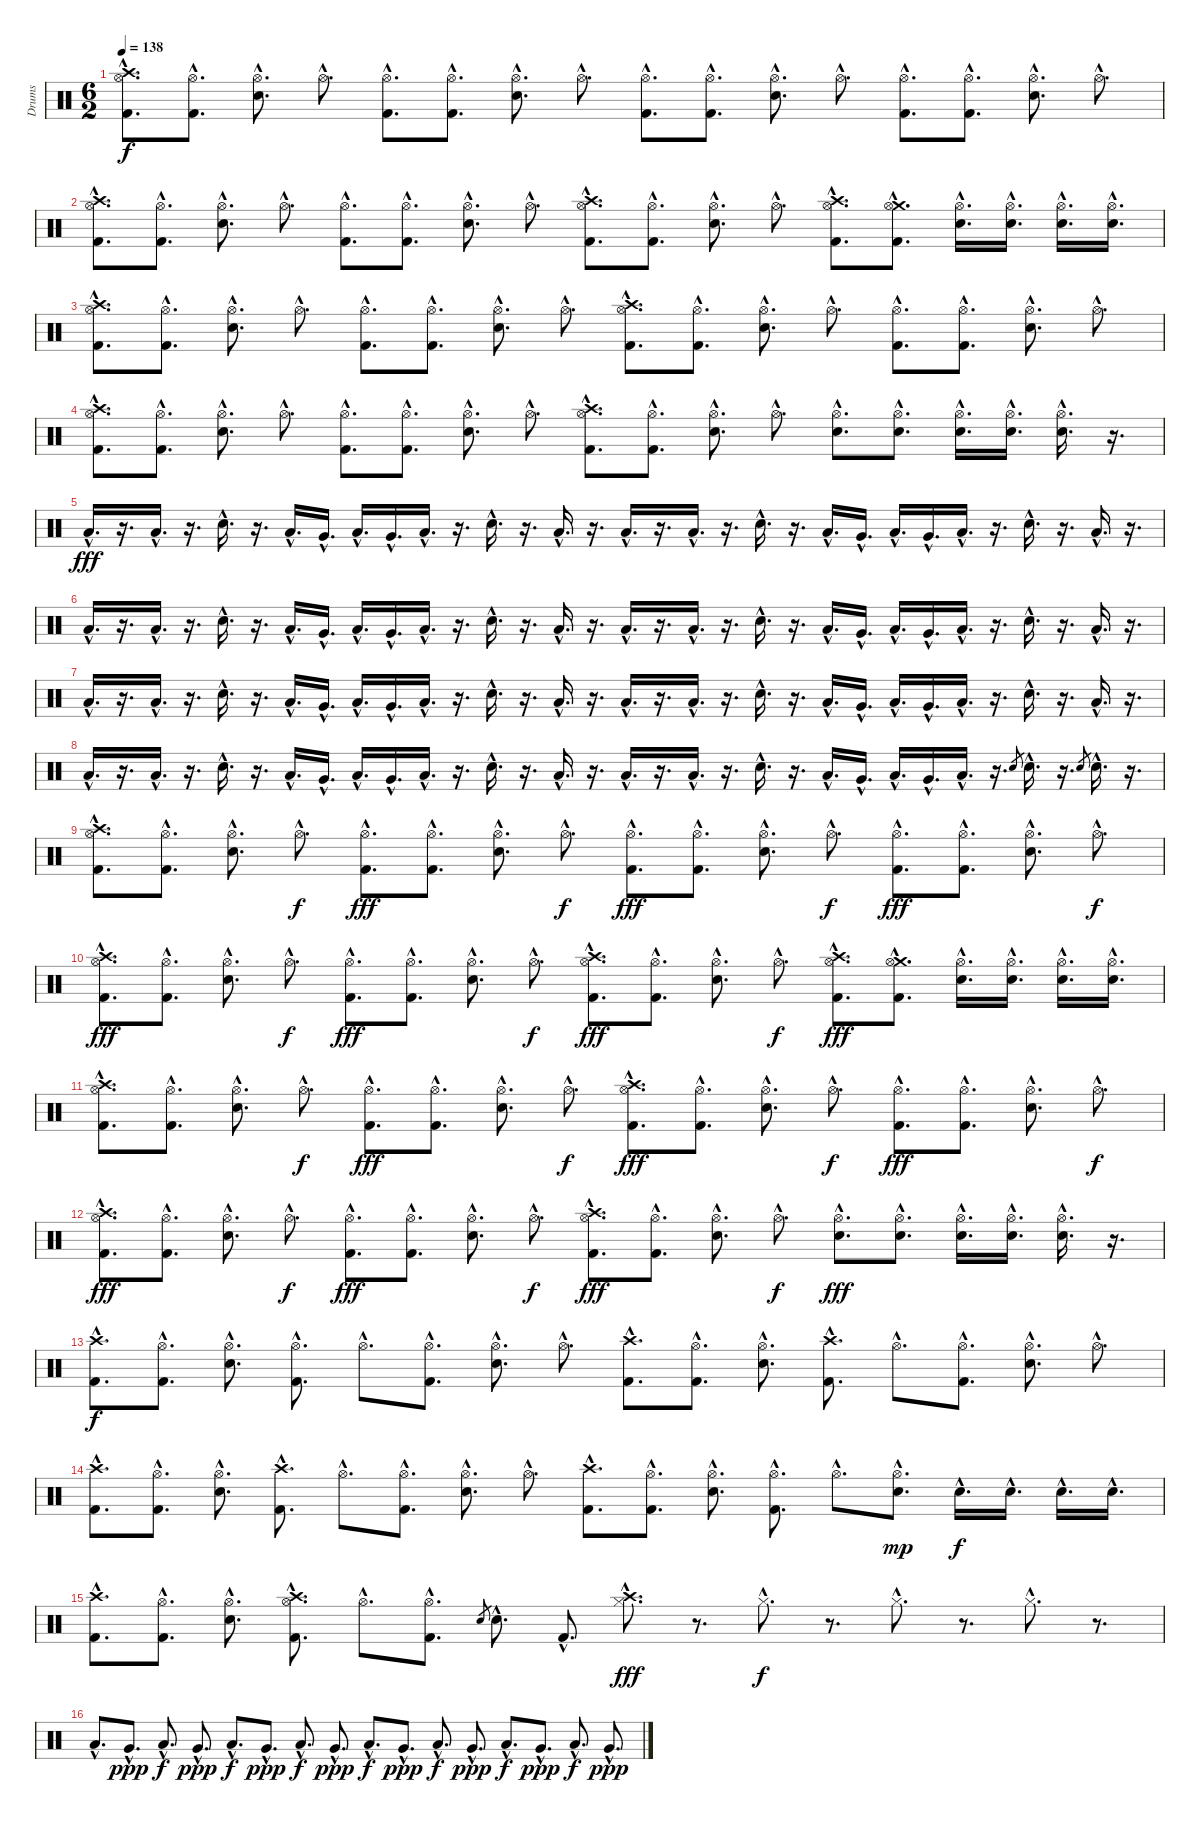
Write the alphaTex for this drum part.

\track ("Drums" "Drums") {instrument percussion}
\staff {score}
\articulation defaults
\ts (6 2)
\tempo 138
\clef neutral
\ks c
("Crash high (hit)"{hac} "Kick (hit) 2"{hac} "Hi-Hat (open)"{hac}).8{d dy f} ("Kick (hit) 2"{hac} "Hi-Hat (open)"{hac}).8{d} ("Electric Snare (hit)"{hac} "Hi-Hat (open)"{hac}).8{d} "Hi-Hat (open)"{hac}.8{d} ("Kick (hit) 2"{hac} "Hi-Hat (open)"{hac}).8{d} ("Kick (hit) 2"{hac} "Hi-Hat (open)"{hac}).8{d} ("Electric Snare (hit)"{hac} "Hi-Hat (open)"{hac}).8{d} "Hi-Hat (open)"{hac}.8{d} ("Kick (hit) 2"{hac} "Hi-Hat (open)"{hac}).8{d} ("Kick (hit) 2"{hac} "Hi-Hat (open)"{hac}).8{d} ("Electric Snare (hit)"{hac} "Hi-Hat (open)"{hac}).8{d} "Hi-Hat (open)"{hac}.8{d} ("Kick (hit) 2"{hac} "Hi-Hat (open)"{hac}).8{d} ("Kick (hit) 2"{hac} "Hi-Hat (open)"{hac}).8{d} ("Electric Snare (hit)"{hac} "Hi-Hat (open)"{hac}).8{d} "Hi-Hat (open)"{hac}.8{d} |
("Crash high (hit)"{hac} "Kick (hit) 2"{hac} "Hi-Hat (open)"{hac}).8{d} ("Kick (hit) 2"{hac} "Hi-Hat (open)"{hac}).8{d} ("Electric Snare (hit)"{hac} "Hi-Hat (open)"{hac}).8{d} "Hi-Hat (open)"{hac}.8{d} ("Kick (hit) 2"{hac} "Hi-Hat (open)"{hac}).8{d} ("Kick (hit) 2"{hac} "Hi-Hat (open)"{hac}).8{d} ("Electric Snare (hit)"{hac} "Hi-Hat (open)"{hac}).8{d} "Hi-Hat (open)"{hac}.8{d} ("Crash high (hit)"{hac} "Kick (hit) 2"{hac} "Hi-Hat (open)"{hac}).8{d} ("Kick (hit) 2"{hac} "Hi-Hat (open)"{hac}).8{d} ("Electric Snare (hit)"{hac} "Hi-Hat (open)"{hac}).8{d} "Hi-Hat (open)"{hac}.8{d} ("Crash high (hit)"{hac} "Kick (hit) 2"{hac} "Hi-Hat (open)"{hac}).8{d} ("Crash medium (hit)"{hac} "Kick (hit) 2"{hac} "Hi-Hat (open)"{hac}).8{d} ("Electric Snare (hit)"{hac} "Hi-Hat (open)"{hac}).16{d} ("Electric Snare (hit)"{hac} "Hi-Hat (open)"{hac}).16{d} ("Electric Snare (hit)"{hac} "Hi-Hat (open)"{hac}).16{d} ("Electric Snare (hit)"{hac} "Hi-Hat (open)"{hac}).16{d} |
("Crash high (hit)"{hac} "Kick (hit) 2"{hac} "Hi-Hat (open)"{hac}).8{d} ("Kick (hit) 2"{hac} "Hi-Hat (open)"{hac}).8{d} ("Electric Snare (hit)"{hac} "Hi-Hat (open)"{hac}).8{d} "Hi-Hat (open)"{hac}.8{d} ("Kick (hit) 2"{hac} "Hi-Hat (open)"{hac}).8{d} ("Kick (hit) 2"{hac} "Hi-Hat (open)"{hac}).8{d} ("Electric Snare (hit)"{hac} "Hi-Hat (open)"{hac}).8{d} "Hi-Hat (open)"{hac}.8{d} ("Crash high (hit)"{hac} "Kick (hit) 2"{hac} "Hi-Hat (open)"{hac}).8{d} ("Kick (hit) 2"{hac} "Hi-Hat (open)"{hac}).8{d} ("Electric Snare (hit)"{hac} "Hi-Hat (open)"{hac}).8{d} "Hi-Hat (open)"{hac}.8{d} ("Kick (hit) 2"{hac} "Hi-Hat (open)"{hac}).8{d} ("Kick (hit) 2"{hac} "Hi-Hat (open)"{hac}).8{d} ("Electric Snare (hit)"{hac} "Hi-Hat (open)"{hac}).8{d} "Hi-Hat (open)"{hac}.8{d} |
("Crash high (hit)"{hac} "Kick (hit) 2"{hac} "Hi-Hat (open)"{hac}).8{d} ("Kick (hit) 2"{hac} "Hi-Hat (open)"{hac}).8{d} ("Electric Snare (hit)"{hac} "Hi-Hat (open)"{hac}).8{d} "Hi-Hat (open)"{hac}.8{d} ("Kick (hit) 2"{hac} "Hi-Hat (open)"{hac}).8{d} ("Kick (hit) 2"{hac} "Hi-Hat (open)"{hac}).8{d} ("Electric Snare (hit)"{hac} "Hi-Hat (open)"{hac}).8{d} "Hi-Hat (open)"{hac}.8{d} ("Crash high (hit)"{hac} "Kick (hit) 2"{hac} "Hi-Hat (open)"{hac}).8{d} ("Kick (hit) 2"{hac} "Hi-Hat (open)"{hac}).8{d} ("Electric Snare (hit)"{hac} "Hi-Hat (open)"{hac}).8{d} "Hi-Hat (open)"{hac}.8{d} ("Electric Snare (hit)"{hac} "Hi-Hat (open)"{hac}).8{d} ("Electric Snare (hit)"{hac} "Hi-Hat (open)"{hac}).8{d} ("Electric Snare (hit)"{hac} "Hi-Hat (open)"{hac}).16{d} ("Electric Snare (hit)"{hac} "Hi-Hat (open)"{hac}).16{d} ("Electric Snare (hit)"{hac} "Hi-Hat (open)"{hac}).16{d} r.16{d} |
"Low Floor Tom (hit)"{hac}.16{d dy fff} r.16{d} "Low Floor Tom (hit)"{hac}.16{d} r.16{d} "Snare (hit) 2"{hac}.16{d} r.16{d} "Low Floor Tom (hit)"{hac}.16{d} "Very Low Tom (hit)"{hac}.16{d} "Low Floor Tom (hit)"{hac}.16{d} "Very Low Tom (hit)"{hac}.16{d} "Low Floor Tom (hit)"{hac}.16{d} r.16{d} "Snare (hit) 2"{hac}.16{d} r.16{d} "Low Floor Tom (hit)"{hac}.16{d} r.16{d} "Low Floor Tom (hit)"{hac}.16{d} r.16{d} "Low Floor Tom (hit)"{hac}.16{d} r.16{d} "Snare (hit) 2"{hac}.16{d} r.16{d} "Low Floor Tom (hit)"{hac}.16{d} "Very Low Tom (hit)"{hac}.16{d} "Low Floor Tom (hit)"{hac}.16{d} "Very Low Tom (hit)"{hac}.16{d} "Low Floor Tom (hit)"{hac}.16{d} r.16{d} "Snare (hit) 2"{hac}.16{d} r.16{d} "Low Floor Tom (hit)"{hac}.16{d} r.16{d} |
"Low Floor Tom (hit)"{hac}.16{d} r.16{d} "Low Floor Tom (hit)"{hac}.16{d} r.16{d} "Snare (hit) 2"{hac}.16{d} r.16{d} "Low Floor Tom (hit)"{hac}.16{d} "Very Low Tom (hit)"{hac}.16{d} "Low Floor Tom (hit)"{hac}.16{d} "Very Low Tom (hit)"{hac}.16{d} "Low Floor Tom (hit)"{hac}.16{d} r.16{d} "Snare (hit) 2"{hac}.16{d} r.16{d} "Low Floor Tom (hit)"{hac}.16{d} r.16{d} "Low Floor Tom (hit)"{hac}.16{d} r.16{d} "Low Floor Tom (hit)"{hac}.16{d} r.16{d} "Snare (hit) 2"{hac}.16{d} r.16{d} "Low Floor Tom (hit)"{hac}.16{d} "Very Low Tom (hit)"{hac}.16{d} "Low Floor Tom (hit)"{hac}.16{d} "Very Low Tom (hit)"{hac}.16{d} "Low Floor Tom (hit)"{hac}.16{d} r.16{d} "Snare (hit) 2"{hac}.16{d} r.16{d} "Low Floor Tom (hit)"{hac}.16{d} r.16{d} |
"Low Floor Tom (hit)"{hac}.16{d} r.16{d} "Low Floor Tom (hit)"{hac}.16{d} r.16{d} "Snare (hit) 2"{hac}.16{d} r.16{d} "Low Floor Tom (hit)"{hac}.16{d} "Very Low Tom (hit)"{hac}.16{d} "Low Floor Tom (hit)"{hac}.16{d} "Very Low Tom (hit)"{hac}.16{d} "Low Floor Tom (hit)"{hac}.16{d} r.16{d} "Snare (hit) 2"{hac}.16{d} r.16{d} "Low Floor Tom (hit)"{hac}.16{d} r.16{d} "Low Floor Tom (hit)"{hac}.16{d} r.16{d} "Low Floor Tom (hit)"{hac}.16{d} r.16{d} "Snare (hit) 2"{hac}.16{d} r.16{d} "Low Floor Tom (hit)"{hac}.16{d} "Very Low Tom (hit)"{hac}.16{d} "Low Floor Tom (hit)"{hac}.16{d} "Very Low Tom (hit)"{hac}.16{d} "Low Floor Tom (hit)"{hac}.16{d} r.16{d} "Snare (hit) 2"{hac}.16{d} r.16{d} "Low Floor Tom (hit)"{hac}.16{d} r.16{d} |
"Low Floor Tom (hit)"{hac}.16{d} r.16{d} "Low Floor Tom (hit)"{hac}.16{d} r.16{d} "Snare (hit) 2"{hac}.16{d} r.16{d} "Low Floor Tom (hit)"{hac}.16{d} "Very Low Tom (hit)"{hac}.16{d} "Low Floor Tom (hit)"{hac}.16{d} "Very Low Tom (hit)"{hac}.16{d} "Low Floor Tom (hit)"{hac}.16{d} r.16{d} "Snare (hit) 2"{hac}.16{d} r.16{d} "Low Floor Tom (hit)"{hac}.16{d} r.16{d} "Low Floor Tom (hit)"{hac}.16{d} r.16{d} "Low Floor Tom (hit)"{hac}.16{d} r.16{d} "Snare (hit) 2"{hac}.16{d} r.16{d} "Low Floor Tom (hit)"{hac}.16{d} "Very Low Tom (hit)"{hac}.16{d} "Low Floor Tom (hit)"{hac}.16{d} "Very Low Tom (hit)"{hac}.16{d} "Low Floor Tom (hit)"{hac}.16{d} r.16{d} "Electric Snare (hit)".8{gr} "Snare (hit) 2"{hac}.16{d} r.16{d} "Electric Snare (hit)".8{gr} "Snare (hit) 2"{hac}.16{d} r.16{d} |
("Crash high (hit)"{hac} "Kick (hit) 2"{hac} "Hi-Hat (open)"{hac}).8{d} ("Kick (hit) 2"{hac} "Hi-Hat (open)"{hac}).8{d} ("Electric Snare (hit)"{hac} "Hi-Hat (open)"{hac}).8{d} "Hi-Hat (open)"{hac}.8{d dy f} ("Kick (hit) 2"{hac} "Hi-Hat (open)"{hac}).8{d dy fff} ("Kick (hit) 2"{hac} "Hi-Hat (open)"{hac}).8{d} ("Electric Snare (hit)"{hac} "Hi-Hat (open)"{hac}).8{d} "Hi-Hat (open)"{hac}.8{d dy f} ("Kick (hit) 2"{hac} "Hi-Hat (open)"{hac}).8{d dy fff} ("Kick (hit) 2"{hac} "Hi-Hat (open)"{hac}).8{d} ("Electric Snare (hit)"{hac} "Hi-Hat (open)"{hac}).8{d} "Hi-Hat (open)"{hac}.8{d dy f} ("Kick (hit) 2"{hac} "Hi-Hat (open)"{hac}).8{d dy fff} ("Kick (hit) 2"{hac} "Hi-Hat (open)"{hac}).8{d} ("Electric Snare (hit)"{hac} "Hi-Hat (open)"{hac}).8{d} "Hi-Hat (open)"{hac}.8{d dy f} |
("Crash high (hit)"{hac} "Kick (hit) 2"{hac} "Hi-Hat (open)"{hac}).8{d dy fff} ("Kick (hit) 2"{hac} "Hi-Hat (open)"{hac}).8{d} ("Electric Snare (hit)"{hac} "Hi-Hat (open)"{hac}).8{d} "Hi-Hat (open)"{hac}.8{d dy f} ("Kick (hit) 2"{hac} "Hi-Hat (open)"{hac}).8{d dy fff} ("Kick (hit) 2"{hac} "Hi-Hat (open)"{hac}).8{d} ("Electric Snare (hit)"{hac} "Hi-Hat (open)"{hac}).8{d} "Hi-Hat (open)"{hac}.8{d dy f} ("Crash high (hit)"{hac} "Kick (hit) 2"{hac} "Hi-Hat (open)"{hac}).8{d dy fff} ("Kick (hit) 2"{hac} "Hi-Hat (open)"{hac}).8{d} ("Electric Snare (hit)"{hac} "Hi-Hat (open)"{hac}).8{d} "Hi-Hat (open)"{hac}.8{d dy f} ("Crash high (hit)"{hac} "Kick (hit) 2"{hac} "Hi-Hat (open)"{hac}).8{d dy fff} ("Crash medium (hit)"{hac} "Kick (hit) 2"{hac} "Hi-Hat (open)"{hac}).8{d} ("Electric Snare (hit)"{hac} "Hi-Hat (open)"{hac}).16{d} ("Electric Snare (hit)"{hac} "Hi-Hat (open)"{hac}).16{d} ("Electric Snare (hit)"{hac} "Hi-Hat (open)"{hac}).16{d} ("Electric Snare (hit)"{hac} "Hi-Hat (open)"{hac}).16{d} |
("Crash high (hit)"{hac} "Kick (hit) 2"{hac} "Hi-Hat (open)"{hac}).8{d} ("Kick (hit) 2"{hac} "Hi-Hat (open)"{hac}).8{d} ("Electric Snare (hit)"{hac} "Hi-Hat (open)"{hac}).8{d} "Hi-Hat (open)"{hac}.8{d dy f} ("Kick (hit) 2"{hac} "Hi-Hat (open)"{hac}).8{d dy fff} ("Kick (hit) 2"{hac} "Hi-Hat (open)"{hac}).8{d} ("Electric Snare (hit)"{hac} "Hi-Hat (open)"{hac}).8{d} "Hi-Hat (open)"{hac}.8{d dy f} ("Crash high (hit)"{hac} "Kick (hit) 2"{hac} "Hi-Hat (open)"{hac}).8{d dy fff} ("Kick (hit) 2"{hac} "Hi-Hat (open)"{hac}).8{d} ("Electric Snare (hit)"{hac} "Hi-Hat (open)"{hac}).8{d} "Hi-Hat (open)"{hac}.8{d dy f} ("Kick (hit) 2"{hac} "Hi-Hat (open)"{hac}).8{d dy fff} ("Kick (hit) 2"{hac} "Hi-Hat (open)"{hac}).8{d} ("Electric Snare (hit)"{hac} "Hi-Hat (open)"{hac}).8{d} "Hi-Hat (open)"{hac}.8{d dy f} |
("Crash high (hit)"{hac} "Kick (hit) 2"{hac} "Hi-Hat (open)"{hac}).8{d dy fff} ("Kick (hit) 2"{hac} "Hi-Hat (open)"{hac}).8{d} ("Electric Snare (hit)"{hac} "Hi-Hat (open)"{hac}).8{d} "Hi-Hat (open)"{hac}.8{d dy f} ("Kick (hit) 2"{hac} "Hi-Hat (open)"{hac}).8{d dy fff} ("Kick (hit) 2"{hac} "Hi-Hat (open)"{hac}).8{d} ("Electric Snare (hit)"{hac} "Hi-Hat (open)"{hac}).8{d} "Hi-Hat (open)"{hac}.8{d dy f} ("Crash high (hit)"{hac} "Kick (hit) 2"{hac} "Hi-Hat (open)"{hac}).8{d dy fff} ("Kick (hit) 2"{hac} "Hi-Hat (open)"{hac}).8{d} ("Electric Snare (hit)"{hac} "Hi-Hat (open)"{hac}).8{d} "Hi-Hat (open)"{hac}.8{d dy f} ("Electric Snare (hit)"{hac} "Hi-Hat (open)"{hac}).8{d dy fff} ("Electric Snare (hit)"{hac} "Hi-Hat (open)"{hac}).8{d} ("Electric Snare (hit)"{hac} "Hi-Hat (open)"{hac}).16{d} ("Electric Snare (hit)"{hac} "Hi-Hat (open)"{hac}).16{d} ("Electric Snare (hit)"{hac} "Hi-Hat (open)"{hac}).16{d} r.16{d} |
("Kick (hit) 2"{hac} "Crash high (hit)"{hac}).8{d dy f} ("Kick (hit) 2"{hac} "Hi-Hat (open)"{hac}).8{d} ("Electric Snare (hit)"{hac} "Hi-Hat (open)"{hac}).8{d} ("Kick (hit) 2"{hac} "Hi-Hat (open)"{hac}).8{d} "Hi-Hat (open)"{hac}.8{d} ("Kick (hit) 2"{hac} "Hi-Hat (open)"{hac}).8{d} ("Electric Snare (hit)"{hac} "Hi-Hat (open)"{hac}).8{d} "Hi-Hat (open)"{hac}.8{d} ("Kick (hit) 2"{hac} "Crash high (hit)"{hac}).8{d} ("Kick (hit) 2"{hac} "Hi-Hat (open)"{hac}).8{d} ("Electric Snare (hit)"{hac} "Hi-Hat (open)"{hac}).8{d} ("Kick (hit) 2"{hac} "Crash high (hit)"{hac}).8{d} "Hi-Hat (open)"{hac}.8{d} ("Kick (hit) 2"{hac} "Hi-Hat (open)"{hac}).8{d} ("Electric Snare (hit)"{hac} "Hi-Hat (open)"{hac}).8{d} "Hi-Hat (open)"{hac}.8{d} |
("Kick (hit) 2"{hac} "Crash high (hit)"{hac}).8{d} ("Kick (hit) 2"{hac} "Hi-Hat (open)"{hac}).8{d} ("Electric Snare (hit)"{hac} "Hi-Hat (open)"{hac}).8{d} ("Kick (hit) 2"{hac} "Crash high (hit)"{hac}).8{d} "Hi-Hat (open)"{hac}.8{d} ("Kick (hit) 2"{hac} "Hi-Hat (open)"{hac}).8{d} ("Electric Snare (hit)"{hac} "Hi-Hat (open)"{hac}).8{d} "Hi-Hat (open)"{hac}.8{d} ("Kick (hit) 2"{hac} "Crash high (hit)"{hac}).8{d} ("Kick (hit) 2"{hac} "Hi-Hat (open)"{hac}).8{d} ("Electric Snare (hit)"{hac} "Hi-Hat (open)"{hac}).8{d} ("Kick (hit) 2"{hac} "Hi-Hat (open)"{hac}).8{d} "Hi-Hat (open)"{hac}.8{d} ("Electric Snare (hit)"{hac} "Hi-Hat (open)"{hac}).8{d dy mp} "Electric Snare (hit)"{hac}.16{d dy f} "Electric Snare (hit)"{hac}.16{d} "Snare (hit) 2"{hac}.16{d} "Snare (hit) 2"{hac}.16{d} |
("Kick (hit) 2"{hac} "Crash high (hit)"{hac}).8{d} ("Kick (hit) 2"{hac} "Hi-Hat (open)"{hac}).8{d} ("Electric Snare (hit)"{hac} "Hi-Hat (open)"{hac}).8{d} ("Kick (hit) 2"{hac} "Crash high (hit)"{hac} "Hi-Hat (open)"{hac}).8{d} "Hi-Hat (open)"{hac}.8{d} ("Kick (hit) 2"{hac} "Hi-Hat (open)"{hac}).8{d} "Electric Snare (hit)".8{gr} "Electric Snare (hit)"{hac}.8{d} "Kick (hit) 2"{hac}.8{d} ("Crash high (hit)"{hac} "Hi-Hat (closed)"{hac}).8{d dy fff} r.8{d} "Hi-Hat (closed)"{hac}.8{d dy f} r.8{d} "Hi-Hat (closed)"{hac}.8{d} r.8{d} "Hi-Hat (closed)"{hac}.8{d} r.8{d} |
"Low Floor Tom (hit)"{hac}.8{d} "Very Low Tom (hit)"{hac}.8{d dy ppp} "Low Floor Tom (hit)"{hac}.8{d dy f} "Very Low Tom (hit)"{hac}.8{d dy ppp} "Low Floor Tom (hit)"{hac}.8{d dy f} "Very Low Tom (hit)"{hac}.8{d dy ppp} "Low Floor Tom (hit)"{hac}.8{d dy f} "Very Low Tom (hit)"{hac}.8{d dy ppp} "Low Floor Tom (hit)"{hac}.8{d dy f} "Very Low Tom (hit)"{hac}.8{d dy ppp} "Low Floor Tom (hit)"{hac}.8{d dy f} "Very Low Tom (hit)"{hac}.8{d dy ppp} "Low Floor Tom (hit)"{hac}.8{d dy f} "Very Low Tom (hit)"{hac}.8{d dy ppp} "Low Floor Tom (hit)"{hac}.8{d dy f} "Very Low Tom (hit)"{hac}.8{d dy ppp}
